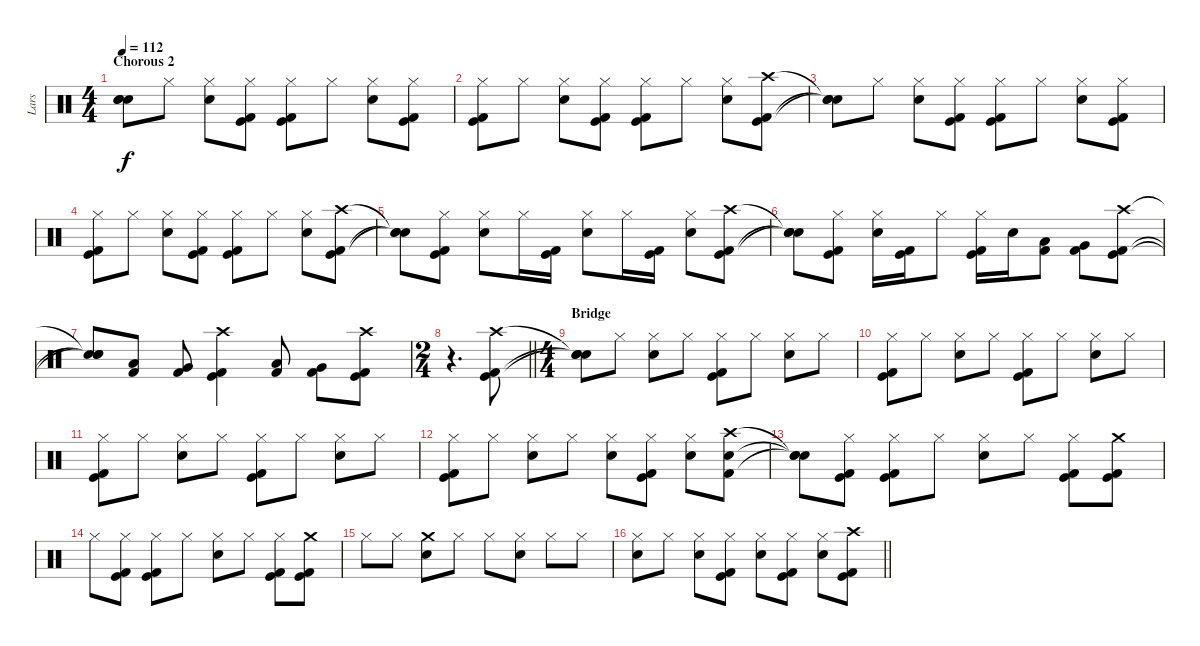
\track ("Lars" "Lars") {instrument percussion}
\staff {score}
\articulation defaults
\ts (4 4)
\section ("" "Chorous 2")
\tempo 112
\clef neutral
\ks c
("Snare (hit)"{t} "Snare (hit)"{t} "Snare (hit)"{t}).8{dy f} "Hi-Hat (closed)".8 ("Hi-Hat (closed)" "Electric Snare (hit)").8 ("Hi-Hat (closed)" "Kick (hit)" "Kick (hit) 2").8 ("Hi-Hat (closed)" "Kick (hit)" "Kick (hit) 2").8 "Hi-Hat (closed)".8 ("Hi-Hat (closed)" "Electric Snare (hit)").8 ("Hi-Hat (closed)" "Kick (hit)" "Kick (hit) 2").8 |
("Hi-Hat (closed)" "Kick (hit)" "Kick (hit) 2").8 "Hi-Hat (closed)".8 ("Hi-Hat (closed)" "Electric Snare (hit)").8 ("Hi-Hat (closed)" "Kick (hit)" "Kick (hit) 2").8 ("Hi-Hat (closed)" "Kick (hit)" "Kick (hit) 2").8 "Hi-Hat (closed)".8 ("Hi-Hat (closed)" "Electric Snare (hit)").8 ("Crash high (hit)" "Kick (hit)" "Kick (hit) 2").8 |
("Snare (hit)"{t} "Snare (hit)"{t} "Snare (hit)"{t}).8 "Hi-Hat (closed)".8 ("Hi-Hat (closed)" "Electric Snare (hit)").8 ("Hi-Hat (closed)" "Kick (hit)" "Kick (hit) 2").8 ("Hi-Hat (closed)" "Kick (hit)" "Kick (hit) 2").8 "Hi-Hat (closed)".8 ("Hi-Hat (closed)" "Electric Snare (hit)").8 ("Hi-Hat (closed)" "Kick (hit)" "Kick (hit) 2").8 |
("Hi-Hat (closed)" "Kick (hit)" "Kick (hit) 2").8 "Hi-Hat (closed)".8 ("Hi-Hat (closed)" "Electric Snare (hit)").8 ("Hi-Hat (closed)" "Kick (hit)" "Kick (hit) 2").8 ("Hi-Hat (closed)" "Kick (hit)" "Kick (hit) 2").8 "Hi-Hat (closed)".8 ("Hi-Hat (closed)" "Electric Snare (hit)").8 ("Crash high (hit)" "Kick (hit)" "Kick (hit) 2").8 |
("Snare (hit)"{t} "Snare (hit)"{t} "Snare (hit)"{t}).8 ("Hi-Hat (closed)" "Kick (hit)" "Kick (hit) 2").8 ("Hi-Hat (closed)" "Electric Snare (hit)").8 "Hi-Hat (closed)".16 ("Kick (hit)" "Kick (hit) 2").16 ("Hi-Hat (closed)" "Electric Snare (hit)").8 "Hi-Hat (closed)".16 ("Kick (hit)" "Kick (hit) 2").16 ("Hi-Hat (closed)" "Electric Snare (hit)").8 ("Crash high (hit)" "Kick (hit)" "Kick (hit) 2").8 |
("Snare (hit)"{t} "Snare (hit)"{t} "Snare (hit)"{t}).8 ("Hi-Hat (closed)" "Kick (hit)" "Kick (hit) 2").8 ("Hi-Hat (closed)" "Electric Snare (hit)").16 ("Kick (hit)" "Kick (hit) 2").16 "Hi-Hat (closed)".8 ("Hi-Hat (closed)" "Kick (hit)" "Kick (hit) 2").16 "Electric Snare (hit)".16 ("Kick (hit) 2" "Low Tom (hit)").8 ("Kick (hit) 2" "Very Low Tom (hit)").8 ("Crash high (hit)" "Kick (hit)" "Kick (hit) 2").8 |
("Snare (hit)"{t} "Snare (hit)"{t} "Snare (hit)"{t}).8 ("Kick (hit) 2" "Low Tom (hit)").8 ("Kick (hit) 2" "Very Low Tom (hit)").8 ("Crash high (hit)" "Kick (hit)" "Kick (hit) 2").4 ("Kick (hit) 2" "Low Tom (hit)").8 ("Kick (hit) 2" "Very Low Tom (hit)").8 ("Crash high (hit)" "Kick (hit)" "Kick (hit) 2").8 |
\ts (2 4)
\barLineRight lightlight
r.4{d} ("Crash high (hit)" "Kick (hit)" "Kick (hit) 2").8 |
\ts (4 4)
\section ("" "Bridge")
("Snare (hit)"{t} "Snare (hit)"{t} "Snare (hit)"{t}).8 "Hi-Hat (closed)".8 ("Hi-Hat (closed)" "Electric Snare (hit)").8 "Hi-Hat (closed)".8 ("Hi-Hat (closed)" "Kick (hit)" "Kick (hit) 2").8 "Hi-Hat (closed)".8 ("Hi-Hat (closed)" "Electric Snare (hit)").8 "Hi-Hat (closed)".8 |
("Hi-Hat (closed)" "Kick (hit)" "Kick (hit) 2").8 "Hi-Hat (closed)".8 ("Hi-Hat (closed)" "Electric Snare (hit)").8 "Hi-Hat (closed)".8 ("Hi-Hat (closed)" "Kick (hit)" "Kick (hit) 2").8 "Hi-Hat (closed)".8 ("Hi-Hat (closed)" "Electric Snare (hit)").8 "Hi-Hat (closed)".8 |
("Hi-Hat (closed)" "Kick (hit)" "Kick (hit) 2").8 "Hi-Hat (closed)".8 ("Hi-Hat (closed)" "Electric Snare (hit)").8 "Hi-Hat (closed)".8 ("Hi-Hat (closed)" "Kick (hit)" "Kick (hit) 2").8 "Hi-Hat (closed)".8 ("Hi-Hat (closed)" "Electric Snare (hit)").8 "Hi-Hat (closed)".8 |
("Hi-Hat (closed)" "Kick (hit)" "Kick (hit) 2").8 "Hi-Hat (closed)".8 ("Hi-Hat (closed)" "Electric Snare (hit)").8 "Hi-Hat (closed)".8 ("Hi-Hat (closed)" "Electric Snare (hit)").8 ("Hi-Hat (closed)" "Kick (hit)" "Kick (hit) 2").8 ("Hi-Hat (closed)" "Electric Snare (hit)").8 ("Crash high (hit)" "Electric Snare (hit)" "Kick (hit) 2").8 |
("Snare (hit)"{t} "Snare (hit)"{t} "Snare (hit)"{t}).8 ("Hi-Hat (closed)" "Kick (hit)" "Kick (hit) 2").8 ("Hi-Hat (closed)" "Kick (hit)" "Kick (hit) 2").8 "Hi-Hat (closed)".8 ("Hi-Hat (closed)" "Electric Snare (hit)").8 "Hi-Hat (closed)".8 ("Hi-Hat (closed)" "Kick (hit)" "Kick (hit) 2").8 ("Crash medium (hit)" "Kick (hit)" "Kick (hit) 2").8 |
"Hi-Hat (closed)".8 ("Hi-Hat (closed)" "Kick (hit)" "Kick (hit) 2").8 ("Hi-Hat (closed)" "Kick (hit)" "Kick (hit) 2").8 "Hi-Hat (closed)".8 ("Hi-Hat (closed)" "Electric Snare (hit)").8 "Hi-Hat (closed)".8 ("Hi-Hat (closed)" "Kick (hit)" "Kick (hit) 2").8 ("Crash medium (hit)" "Kick (hit)" "Kick (hit) 2").8 |
"Hi-Hat (closed)".8 "Hi-Hat (closed)".8 ("Crash medium (hit)" "Electric Snare (hit)").8 "Hi-Hat (closed)".8 "Hi-Hat (closed)".8 ("Hi-Hat (closed)" "Electric Snare (hit)").8 "Hi-Hat (closed)".8 "Hi-Hat (closed)".8 |
\barLineRight lightlight
("Hi-Hat (closed)" "Electric Snare (hit)").8 "Hi-Hat (closed)".8 ("Hi-Hat (closed)" "Electric Snare (hit)").8 ("Hi-Hat (closed)" "Kick (hit)" "Kick (hit) 2").8 ("Hi-Hat (closed)" "Electric Snare (hit)").8 ("Hi-Hat (closed)" "Kick (hit)" "Kick (hit) 2").8 ("Hi-Hat (closed)" "Electric Snare (hit)").8 ("Crash high (hit)" "Kick (hit)" "Kick (hit) 2").8
